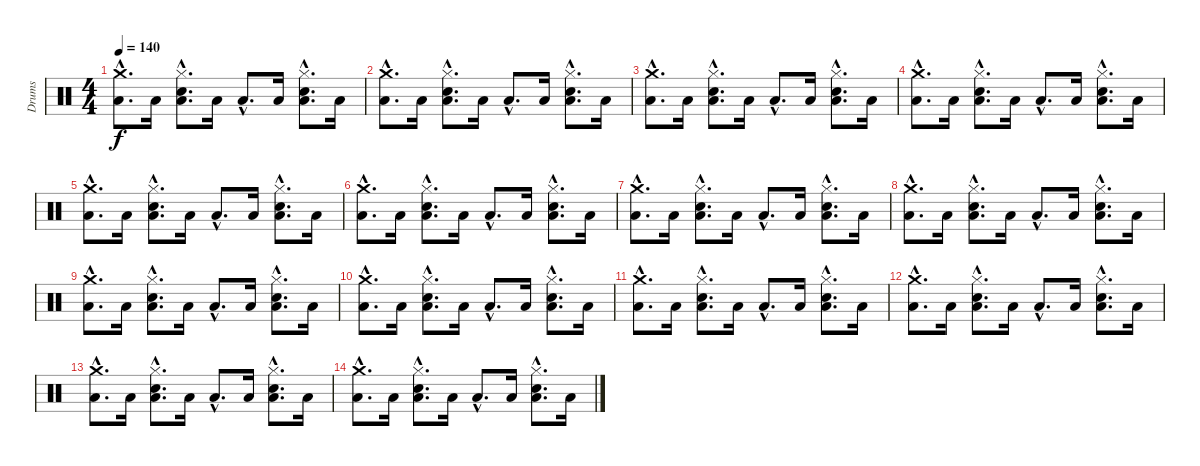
\track ("Drums" "Drums") {instrument percussion}
\staff {score}
\articulation defaults
\ts (4 4)
\tempo 140
\clef neutral
\ks c
("Crash medium (hit)"{hac} "Low Floor Tom (hit)"{hac}).8{d dy f} "Low Floor Tom (hit)".16 ("Hi-Hat (closed)"{hac} "Snare (hit) 2"{hac} "Low Floor Tom (hit)"{hac}).8{d} "Low Floor Tom (hit)".16 "Low Floor Tom (hit)"{hac}.8{d} "Low Floor Tom (hit)".16 ("Hi-Hat (closed)"{hac} "Snare (hit) 2"{hac} "Low Floor Tom (hit)"{hac}).8{d} "Low Floor Tom (hit)".16 |
("Crash medium (hit)"{hac} "Low Floor Tom (hit)"{hac}).8{d} "Low Floor Tom (hit)".16 ("Hi-Hat (closed)"{hac} "Snare (hit) 2"{hac} "Low Floor Tom (hit)"{hac}).8{d} "Low Floor Tom (hit)".16 "Low Floor Tom (hit)"{hac}.8{d} "Low Floor Tom (hit)".16 ("Hi-Hat (closed)"{hac} "Snare (hit) 2"{hac} "Low Floor Tom (hit)"{hac}).8{d} "Low Floor Tom (hit)".16 |
("Crash medium (hit)"{hac} "Low Floor Tom (hit)"{hac}).8{d} "Low Floor Tom (hit)".16 ("Hi-Hat (closed)"{hac} "Snare (hit) 2"{hac} "Low Floor Tom (hit)"{hac}).8{d} "Low Floor Tom (hit)".16 "Low Floor Tom (hit)"{hac}.8{d} "Low Floor Tom (hit)".16 ("Hi-Hat (closed)"{hac} "Snare (hit) 2"{hac} "Low Floor Tom (hit)"{hac}).8{d} "Low Floor Tom (hit)".16 |
("Crash medium (hit)"{hac} "Low Floor Tom (hit)"{hac}).8{d} "Low Floor Tom (hit)".16 ("Hi-Hat (closed)"{hac} "Snare (hit) 2"{hac} "Low Floor Tom (hit)"{hac}).8{d} "Low Floor Tom (hit)".16 "Low Floor Tom (hit)"{hac}.8{d} "Low Floor Tom (hit)".16 ("Hi-Hat (closed)"{hac} "Snare (hit) 2"{hac} "Low Floor Tom (hit)"{hac}).8{d} "Low Floor Tom (hit)".16 |
("Crash medium (hit)"{hac} "Low Floor Tom (hit)"{hac}).8{d} "Low Floor Tom (hit)".16 ("Hi-Hat (closed)"{hac} "Snare (hit) 2"{hac} "Low Floor Tom (hit)"{hac}).8{d} "Low Floor Tom (hit)".16 "Low Floor Tom (hit)"{hac}.8{d} "Low Floor Tom (hit)".16 ("Hi-Hat (closed)"{hac} "Snare (hit) 2"{hac} "Low Floor Tom (hit)"{hac}).8{d} "Low Floor Tom (hit)".16 |
("Crash medium (hit)"{hac} "Low Floor Tom (hit)"{hac}).8{d} "Low Floor Tom (hit)".16 ("Hi-Hat (closed)"{hac} "Snare (hit) 2"{hac} "Low Floor Tom (hit)"{hac}).8{d} "Low Floor Tom (hit)".16 "Low Floor Tom (hit)"{hac}.8{d} "Low Floor Tom (hit)".16 ("Hi-Hat (closed)"{hac} "Snare (hit) 2"{hac} "Low Floor Tom (hit)"{hac}).8{d} "Low Floor Tom (hit)".16 |
("Crash medium (hit)"{hac} "Low Floor Tom (hit)"{hac}).8{d} "Low Floor Tom (hit)".16 ("Hi-Hat (closed)"{hac} "Snare (hit) 2"{hac} "Low Floor Tom (hit)"{hac}).8{d} "Low Floor Tom (hit)".16 "Low Floor Tom (hit)"{hac}.8{d} "Low Floor Tom (hit)".16 ("Hi-Hat (closed)"{hac} "Snare (hit) 2"{hac} "Low Floor Tom (hit)"{hac}).8{d} "Low Floor Tom (hit)".16 |
("Crash medium (hit)"{hac} "Low Floor Tom (hit)"{hac}).8{d} "Low Floor Tom (hit)".16 ("Hi-Hat (closed)"{hac} "Snare (hit) 2"{hac} "Low Floor Tom (hit)"{hac}).8{d} "Low Floor Tom (hit)".16 "Low Floor Tom (hit)"{hac}.8{d} "Low Floor Tom (hit)".16 ("Hi-Hat (closed)"{hac} "Snare (hit) 2"{hac} "Low Floor Tom (hit)"{hac}).8{d} "Low Floor Tom (hit)".16 |
("Crash medium (hit)"{hac} "Low Floor Tom (hit)"{hac}).8{d} "Low Floor Tom (hit)".16 ("Hi-Hat (closed)"{hac} "Snare (hit) 2"{hac} "Low Floor Tom (hit)"{hac}).8{d} "Low Floor Tom (hit)".16 "Low Floor Tom (hit)"{hac}.8{d} "Low Floor Tom (hit)".16 ("Hi-Hat (closed)"{hac} "Snare (hit) 2"{hac} "Low Floor Tom (hit)"{hac}).8{d} "Low Floor Tom (hit)".16 |
("Crash medium (hit)"{hac} "Low Floor Tom (hit)"{hac}).8{d} "Low Floor Tom (hit)".16 ("Hi-Hat (closed)"{hac} "Snare (hit) 2"{hac} "Low Floor Tom (hit)"{hac}).8{d} "Low Floor Tom (hit)".16 "Low Floor Tom (hit)"{hac}.8{d} "Low Floor Tom (hit)".16 ("Hi-Hat (closed)"{hac} "Snare (hit) 2"{hac} "Low Floor Tom (hit)"{hac}).8{d} "Low Floor Tom (hit)".16 |
("Crash medium (hit)"{hac} "Low Floor Tom (hit)"{hac}).8{d} "Low Floor Tom (hit)".16 ("Hi-Hat (closed)"{hac} "Snare (hit) 2"{hac} "Low Floor Tom (hit)"{hac}).8{d} "Low Floor Tom (hit)".16 "Low Floor Tom (hit)"{hac}.8{d} "Low Floor Tom (hit)".16 ("Hi-Hat (closed)"{hac} "Snare (hit) 2"{hac} "Low Floor Tom (hit)"{hac}).8{d} "Low Floor Tom (hit)".16 |
("Crash medium (hit)"{hac} "Low Floor Tom (hit)"{hac}).8{d} "Low Floor Tom (hit)".16 ("Hi-Hat (closed)"{hac} "Snare (hit) 2"{hac} "Low Floor Tom (hit)"{hac}).8{d} "Low Floor Tom (hit)".16 "Low Floor Tom (hit)"{hac}.8{d} "Low Floor Tom (hit)".16 ("Hi-Hat (closed)"{hac} "Snare (hit) 2"{hac} "Low Floor Tom (hit)"{hac}).8{d} "Low Floor Tom (hit)".16 |
("Crash medium (hit)"{hac} "Low Floor Tom (hit)"{hac}).8{d} "Low Floor Tom (hit)".16 ("Hi-Hat (closed)"{hac} "Snare (hit) 2"{hac} "Low Floor Tom (hit)"{hac}).8{d} "Low Floor Tom (hit)".16 "Low Floor Tom (hit)"{hac}.8{d} "Low Floor Tom (hit)".16 ("Hi-Hat (closed)"{hac} "Snare (hit) 2"{hac} "Low Floor Tom (hit)"{hac}).8{d} "Low Floor Tom (hit)".16 |
("Crash medium (hit)"{hac} "Low Floor Tom (hit)"{hac}).8{d} "Low Floor Tom (hit)".16 ("Hi-Hat (closed)"{hac} "Snare (hit) 2"{hac} "Low Floor Tom (hit)"{hac}).8{d} "Low Floor Tom (hit)".16 "Low Floor Tom (hit)"{hac}.8{d} "Low Floor Tom (hit)".16 ("Hi-Hat (closed)"{hac} "Snare (hit) 2"{hac} "Low Floor Tom (hit)"{hac}).8{d} "Low Floor Tom (hit)".16
